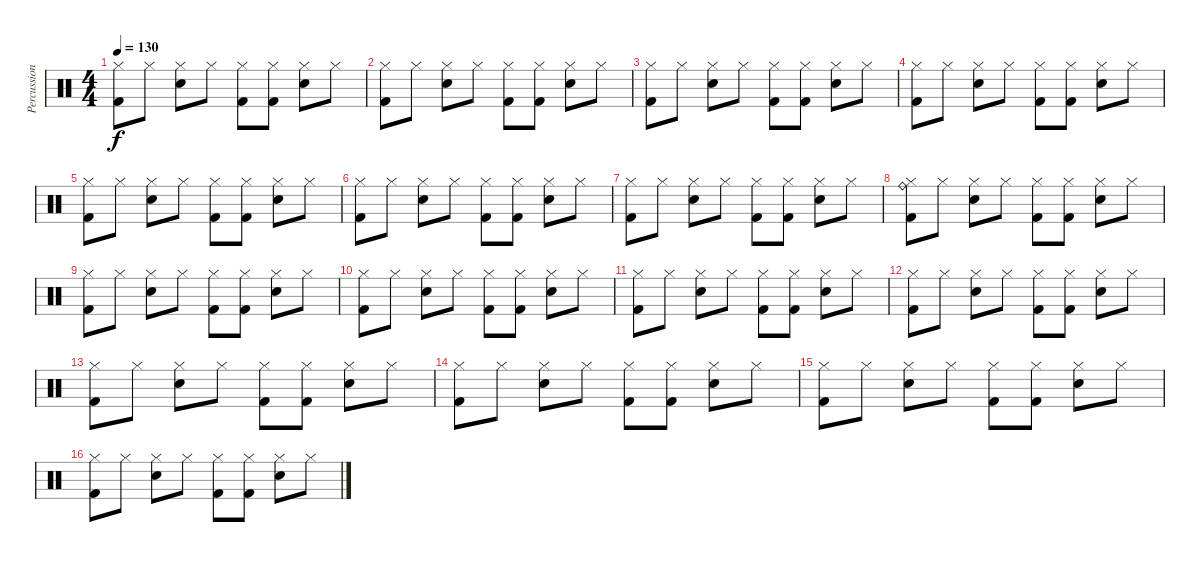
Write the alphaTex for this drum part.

\track ("Percussion" "Percussion") {instrument percussion}
\staff {score}
\articulation defaults
\ts (4 4)
\tempo 130
\clef neutral
\ks c
("Hi-Hat (closed)" "Kick (hit) 2").8{dy f} "Hi-Hat (closed)".8 ("Hi-Hat (closed)" "Metronome (bell)").8 "Hi-Hat (closed)".8 ("Hi-Hat (closed)" "Kick (hit) 2").8 ("Hi-Hat (closed)" "Kick (hit) 2").8 ("Hi-Hat (closed)" "Metronome (bell)").8 "Hi-Hat (closed)".8 |
("Hi-Hat (closed)" "Kick (hit) 2").8 "Hi-Hat (closed)".8 ("Hi-Hat (closed)" "Metronome (bell)").8 "Hi-Hat (closed)".8 ("Hi-Hat (closed)" "Kick (hit) 2").8 ("Hi-Hat (closed)" "Kick (hit) 2").8 ("Hi-Hat (closed)" "Metronome (bell)").8 "Hi-Hat (closed)".8 |
("Hi-Hat (closed)" "Kick (hit) 2").8 "Hi-Hat (closed)".8 ("Hi-Hat (closed)" "Metronome (bell)").8 "Hi-Hat (closed)".8 ("Hi-Hat (closed)" "Kick (hit) 2").8 ("Hi-Hat (closed)" "Kick (hit) 2").8 ("Hi-Hat (closed)" "Metronome (bell)").8 "Hi-Hat (closed)".8 |
("Hi-Hat (closed)" "Kick (hit) 2").8 "Hi-Hat (closed)".8 ("Hi-Hat (closed)" "Metronome (bell)").8 "Hi-Hat (closed)".8 ("Hi-Hat (closed)" "Kick (hit) 2").8 ("Hi-Hat (closed)" "Kick (hit) 2").8 ("Hi-Hat (closed)" "Metronome (bell)").8 "Hi-Hat (closed)".8 |
("Hi-Hat (closed)" "Kick (hit) 2").8 "Hi-Hat (closed)".8 ("Hi-Hat (closed)" "Metronome (bell)").8 "Hi-Hat (closed)".8 ("Hi-Hat (closed)" "Kick (hit) 2").8 ("Hi-Hat (closed)" "Kick (hit) 2").8 ("Hi-Hat (closed)" "Metronome (bell)").8 "Hi-Hat (closed)".8 |
("Hi-Hat (closed)" "Kick (hit) 2").8 "Hi-Hat (closed)".8 ("Hi-Hat (closed)" "Metronome (bell)").8 "Hi-Hat (closed)".8 ("Hi-Hat (closed)" "Kick (hit) 2").8 ("Hi-Hat (closed)" "Kick (hit) 2").8 ("Hi-Hat (closed)" "Metronome (bell)").8 "Hi-Hat (closed)".8 |
("Hi-Hat (closed)" "Kick (hit) 2").8 "Hi-Hat (closed)".8 ("Hi-Hat (closed)" "Metronome (bell)").8 "Hi-Hat (closed)".8 ("Hi-Hat (closed)" "Kick (hit) 2").8 ("Hi-Hat (closed)" "Kick (hit) 2").8 ("Hi-Hat (closed)" "Metronome (bell)").8 "Hi-Hat (closed)".8 |
("Hi-Hat (closed)" "Ride (bell)" "Kick (hit) 2").8 "Hi-Hat (closed)".8 ("Hi-Hat (closed)" "Metronome (bell)").8 "Hi-Hat (closed)".8 ("Hi-Hat (closed)" "Kick (hit) 2").8 ("Hi-Hat (closed)" "Kick (hit) 2").8 ("Hi-Hat (closed)" "Metronome (bell)").8 "Hi-Hat (closed)".8 |
("Hi-Hat (closed)" "Kick (hit) 2").8 "Hi-Hat (closed)".8 ("Hi-Hat (closed)" "Metronome (bell)").8 "Hi-Hat (closed)".8 ("Hi-Hat (closed)" "Kick (hit) 2").8 ("Hi-Hat (closed)" "Kick (hit) 2").8 ("Hi-Hat (closed)" "Metronome (bell)").8 "Hi-Hat (closed)".8 |
("Hi-Hat (closed)" "Kick (hit) 2").8 "Hi-Hat (closed)".8 ("Hi-Hat (closed)" "Metronome (bell)").8 "Hi-Hat (closed)".8 ("Hi-Hat (closed)" "Kick (hit) 2").8 ("Hi-Hat (closed)" "Kick (hit) 2").8 ("Hi-Hat (closed)" "Metronome (bell)").8 "Hi-Hat (closed)".8 |
("Hi-Hat (closed)" "Kick (hit) 2").8 "Hi-Hat (closed)".8 ("Hi-Hat (closed)" "Metronome (bell)").8 "Hi-Hat (closed)".8 ("Hi-Hat (closed)" "Kick (hit) 2").8 ("Hi-Hat (closed)" "Kick (hit) 2").8 ("Hi-Hat (closed)" "Metronome (bell)").8 "Hi-Hat (closed)".8 |
("Hi-Hat (closed)" "Kick (hit) 2").8 "Hi-Hat (closed)".8 ("Hi-Hat (closed)" "Metronome (bell)").8 "Hi-Hat (closed)".8 ("Hi-Hat (closed)" "Kick (hit) 2").8 ("Hi-Hat (closed)" "Kick (hit) 2").8 ("Hi-Hat (closed)" "Metronome (bell)").8 "Hi-Hat (closed)".8 |
("Hi-Hat (closed)" "Kick (hit) 2").8 "Hi-Hat (closed)".8 ("Hi-Hat (closed)" "Metronome (bell)").8 "Hi-Hat (closed)".8 ("Hi-Hat (closed)" "Kick (hit) 2").8 ("Hi-Hat (closed)" "Kick (hit) 2").8 ("Hi-Hat (closed)" "Metronome (bell)").8 "Hi-Hat (closed)".8 |
("Hi-Hat (closed)" "Kick (hit) 2").8 "Hi-Hat (closed)".8 ("Hi-Hat (closed)" "Metronome (bell)").8 "Hi-Hat (closed)".8 ("Hi-Hat (closed)" "Kick (hit) 2").8 ("Hi-Hat (closed)" "Kick (hit) 2").8 ("Hi-Hat (closed)" "Metronome (bell)").8 "Hi-Hat (closed)".8 |
("Hi-Hat (closed)" "Kick (hit) 2").8 "Hi-Hat (closed)".8 ("Hi-Hat (closed)" "Metronome (bell)").8 "Hi-Hat (closed)".8 ("Hi-Hat (closed)" "Kick (hit) 2").8 ("Hi-Hat (closed)" "Kick (hit) 2").8 ("Hi-Hat (closed)" "Metronome (bell)").8 "Hi-Hat (closed)".8 |
("Hi-Hat (closed)" "Kick (hit) 2").8 "Hi-Hat (closed)".8 ("Hi-Hat (closed)" "Metronome (bell)").8 "Hi-Hat (closed)".8 ("Hi-Hat (closed)" "Kick (hit) 2").8 ("Hi-Hat (closed)" "Kick (hit) 2").8 ("Hi-Hat (closed)" "Metronome (bell)").8 "Hi-Hat (closed)".8
